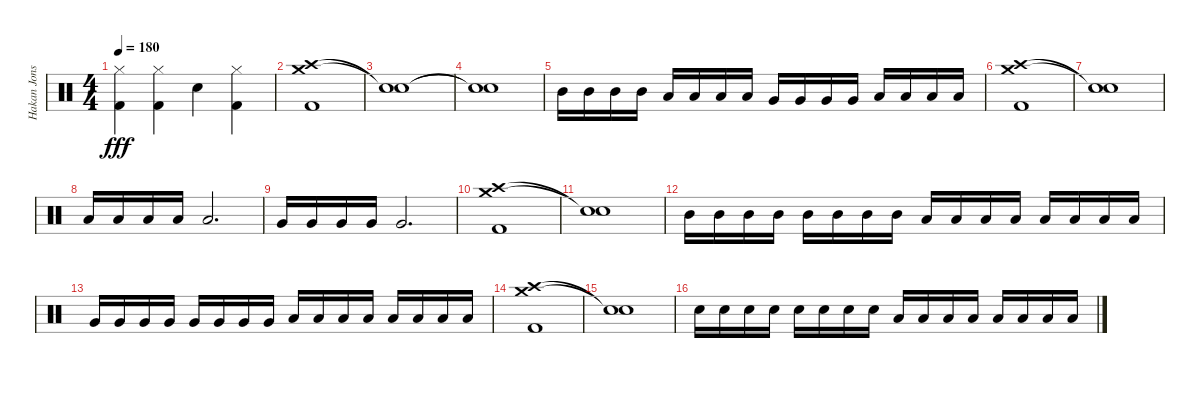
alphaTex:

\track ("Hakan Jonsson" "Hakan Jons") {instrument percussion}
\staff {score}
\articulation defaults
\ts (4 4)
\tempo 180
\clef neutral
\ks c
("Hi-Hat (closed)" "Kick (hit) 2").4{dy fff} ("Hi-Hat (closed)" "Kick (hit) 2").4 "Electric Snare (hit)".4 ("Hi-Hat (closed)" "Kick (hit) 2").4 |
("Crash high (hit)" "Crash medium (hit)" "Kick (hit) 2").1 |
("Snare (hit)"{t} "Snare (hit)"{t}).1 |
("Snare (hit)"{t} "Snare (hit)"{t}).1 |
"Mid Tom (hit)".16 "Mid Tom (hit)".16 "Mid Tom (hit)".16 "Mid Tom (hit)".16 "Low Tom (hit)".16 "Low Tom (hit)".16 "Low Tom (hit)".16 "Low Tom (hit)".16 "Very Low Tom (hit)".16 "Very Low Tom (hit)".16 "Very Low Tom (hit)".16 "Very Low Tom (hit)".16 "Low Floor Tom (hit)".16 "Low Floor Tom (hit)".16 "Low Floor Tom (hit)".16 "Low Floor Tom (hit)".16 |
("Crash high (hit)" "Crash medium (hit)" "Kick (hit) 2").1 |
("Snare (hit)"{t} "Snare (hit)"{t}).1 |
"Low Tom (hit)".16 "Low Tom (hit)".16 "Low Tom (hit)".16 "Low Tom (hit)".16 "Low Tom (hit)".2{d} |
"Very Low Tom (hit)".16 "Very Low Tom (hit)".16 "Very Low Tom (hit)".16 "Very Low Tom (hit)".16 "Very Low Tom (hit)".2{d} |
("Crash high (hit)" "Crash medium (hit)" "Kick (hit) 2").1 |
("Snare (hit)"{t} "Snare (hit)"{t}).1 |
"Mid Tom (hit)".16 "Mid Tom (hit)".16 "Mid Tom (hit)".16 "Mid Tom (hit)".16 "Mid Tom (hit)".16 "Mid Tom (hit)".16 "Mid Tom (hit)".16 "Mid Tom (hit)".16 "Low Tom (hit)".16 "Low Tom (hit)".16 "Low Tom (hit)".16 "Low Tom (hit)".16 "Low Tom (hit)".16 "Low Tom (hit)".16 "Low Tom (hit)".16 "Low Tom (hit)".16 |
"Very Low Tom (hit)".16 "Very Low Tom (hit)".16 "Very Low Tom (hit)".16 "Very Low Tom (hit)".16 "Very Low Tom (hit)".16 "Very Low Tom (hit)".16 "Very Low Tom (hit)".16 "Very Low Tom (hit)".16 "Low Floor Tom (hit)".16 "Low Floor Tom (hit)".16 "Low Floor Tom (hit)".16 "Low Floor Tom (hit)".16 "Low Floor Tom (hit)".16 "Low Floor Tom (hit)".16 "Low Floor Tom (hit)".16 "Low Floor Tom (hit)".16 |
("Crash high (hit)" "Crash medium (hit)" "Kick (hit) 2").1 |
("Snare (hit)"{t} "Snare (hit)"{t}).1 |
"Electric Snare (hit)".16 "Electric Snare (hit)".16 "Electric Snare (hit)".16 "Electric Snare (hit)".16 "Electric Snare (hit)".16 "Electric Snare (hit)".16 "Electric Snare (hit)".16 "Electric Snare (hit)".16 "Low Tom (hit)".16 "Low Tom (hit)".16 "Low Tom (hit)".16 "Low Tom (hit)".16 "Low Tom (hit)".16 "Low Tom (hit)".16 "Low Tom (hit)".16 "Low Tom (hit)".16
